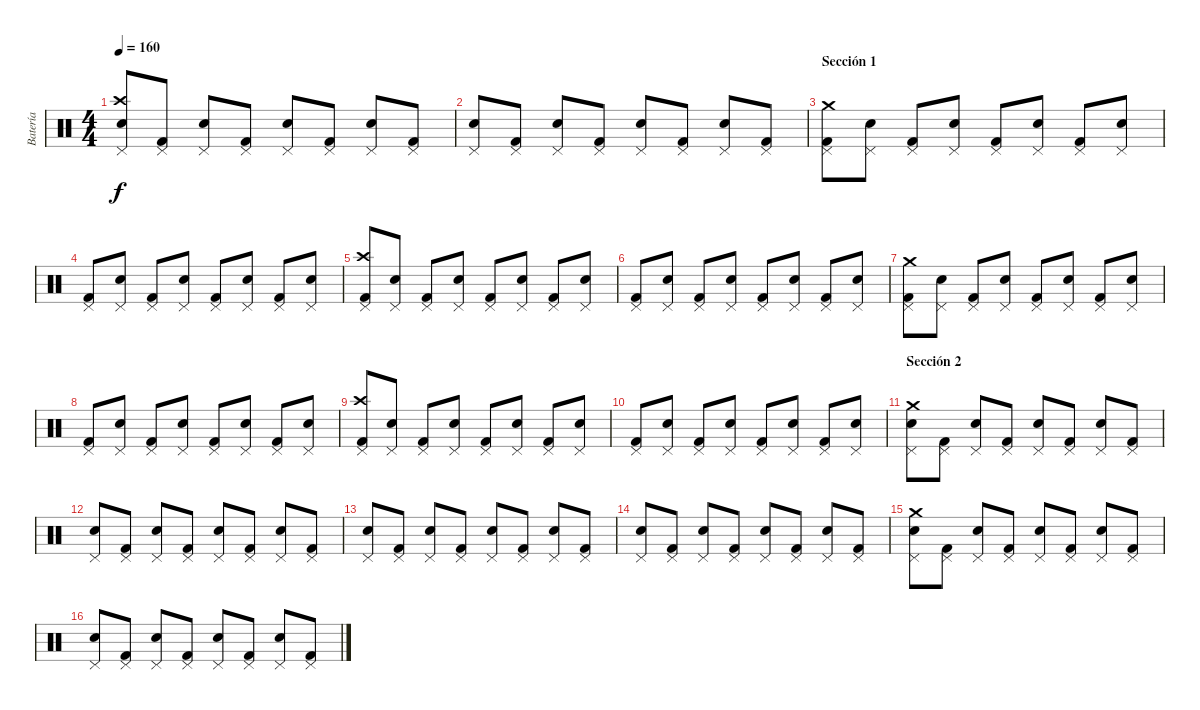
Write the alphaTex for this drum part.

\track ("Batería" "Batería") {instrument percussion}
\staff {score}
\articulation defaults
\ts (4 4)
\tempo 160
\clef neutral
\ks c
("Pedal Hi-Hat (hit)" "Crash high (hit)" "Electric Snare (hit)").8{dy f} ("Pedal Hi-Hat (hit)" "Kick (hit) 2").8 ("Pedal Hi-Hat (hit)" "Electric Snare (hit)").8 ("Pedal Hi-Hat (hit)" "Kick (hit) 2").8 ("Pedal Hi-Hat (hit)" "Electric Snare (hit)").8 ("Pedal Hi-Hat (hit)" "Kick (hit) 2").8 ("Pedal Hi-Hat (hit)" "Electric Snare (hit)").8 ("Pedal Hi-Hat (hit)" "Kick (hit) 2").8 |
("Pedal Hi-Hat (hit)" "Electric Snare (hit)").8 ("Pedal Hi-Hat (hit)" "Kick (hit) 2").8 ("Pedal Hi-Hat (hit)" "Electric Snare (hit)").8 ("Pedal Hi-Hat (hit)" "Kick (hit) 2").8 ("Pedal Hi-Hat (hit)" "Electric Snare (hit)").8 ("Pedal Hi-Hat (hit)" "Kick (hit) 2").8 ("Pedal Hi-Hat (hit)" "Electric Snare (hit)").8 ("Pedal Hi-Hat (hit)" "Kick (hit) 2").8 |
\section ("" "Sección 1")
("Pedal Hi-Hat (hit)" "Crash medium (hit)" "Kick (hit) 2").8 ("Pedal Hi-Hat (hit)" "Electric Snare (hit)").8 ("Pedal Hi-Hat (hit)" "Kick (hit) 2").8 ("Pedal Hi-Hat (hit)" "Electric Snare (hit)").8 ("Pedal Hi-Hat (hit)" "Kick (hit) 2").8 ("Pedal Hi-Hat (hit)" "Electric Snare (hit)").8 ("Pedal Hi-Hat (hit)" "Kick (hit) 2").8 ("Pedal Hi-Hat (hit)" "Electric Snare (hit)").8 |
("Pedal Hi-Hat (hit)" "Kick (hit) 2").8 ("Pedal Hi-Hat (hit)" "Electric Snare (hit)").8 ("Pedal Hi-Hat (hit)" "Kick (hit) 2").8 ("Pedal Hi-Hat (hit)" "Electric Snare (hit)").8 ("Pedal Hi-Hat (hit)" "Kick (hit) 2").8 ("Pedal Hi-Hat (hit)" "Electric Snare (hit)").8 ("Pedal Hi-Hat (hit)" "Kick (hit) 2").8 ("Pedal Hi-Hat (hit)" "Electric Snare (hit)").8 |
("Pedal Hi-Hat (hit)" "Crash high (hit)" "Kick (hit) 2").8 ("Pedal Hi-Hat (hit)" "Electric Snare (hit)").8 ("Pedal Hi-Hat (hit)" "Kick (hit) 2").8 ("Pedal Hi-Hat (hit)" "Electric Snare (hit)").8 ("Pedal Hi-Hat (hit)" "Kick (hit) 2").8 ("Pedal Hi-Hat (hit)" "Electric Snare (hit)").8 ("Pedal Hi-Hat (hit)" "Kick (hit) 2").8 ("Pedal Hi-Hat (hit)" "Electric Snare (hit)").8 |
("Pedal Hi-Hat (hit)" "Kick (hit) 2").8 ("Pedal Hi-Hat (hit)" "Electric Snare (hit)").8 ("Pedal Hi-Hat (hit)" "Kick (hit) 2").8 ("Pedal Hi-Hat (hit)" "Electric Snare (hit)").8 ("Pedal Hi-Hat (hit)" "Kick (hit) 2").8 ("Pedal Hi-Hat (hit)" "Electric Snare (hit)").8 ("Pedal Hi-Hat (hit)" "Kick (hit) 2").8 ("Pedal Hi-Hat (hit)" "Electric Snare (hit)").8 |
("Pedal Hi-Hat (hit)" "Crash medium (hit)" "Kick (hit) 2").8 ("Pedal Hi-Hat (hit)" "Electric Snare (hit)").8 ("Pedal Hi-Hat (hit)" "Kick (hit) 2").8 ("Pedal Hi-Hat (hit)" "Electric Snare (hit)").8 ("Pedal Hi-Hat (hit)" "Kick (hit) 2").8 ("Pedal Hi-Hat (hit)" "Electric Snare (hit)").8 ("Pedal Hi-Hat (hit)" "Kick (hit) 2").8 ("Pedal Hi-Hat (hit)" "Electric Snare (hit)").8 |
("Pedal Hi-Hat (hit)" "Kick (hit) 2").8 ("Pedal Hi-Hat (hit)" "Electric Snare (hit)").8 ("Pedal Hi-Hat (hit)" "Kick (hit) 2").8 ("Pedal Hi-Hat (hit)" "Electric Snare (hit)").8 ("Pedal Hi-Hat (hit)" "Kick (hit) 2").8 ("Pedal Hi-Hat (hit)" "Electric Snare (hit)").8 ("Pedal Hi-Hat (hit)" "Kick (hit) 2").8 ("Pedal Hi-Hat (hit)" "Electric Snare (hit)").8 |
("Pedal Hi-Hat (hit)" "Crash high (hit)" "Kick (hit) 2").8 ("Pedal Hi-Hat (hit)" "Electric Snare (hit)").8 ("Pedal Hi-Hat (hit)" "Kick (hit) 2").8 ("Pedal Hi-Hat (hit)" "Electric Snare (hit)").8 ("Pedal Hi-Hat (hit)" "Kick (hit) 2").8 ("Pedal Hi-Hat (hit)" "Electric Snare (hit)").8 ("Pedal Hi-Hat (hit)" "Kick (hit) 2").8 ("Pedal Hi-Hat (hit)" "Electric Snare (hit)").8 |
("Pedal Hi-Hat (hit)" "Kick (hit) 2").8 ("Pedal Hi-Hat (hit)" "Electric Snare (hit)").8 ("Pedal Hi-Hat (hit)" "Kick (hit) 2").8 ("Pedal Hi-Hat (hit)" "Electric Snare (hit)").8 ("Pedal Hi-Hat (hit)" "Kick (hit) 2").8 ("Pedal Hi-Hat (hit)" "Electric Snare (hit)").8 ("Pedal Hi-Hat (hit)" "Kick (hit) 2").8 ("Pedal Hi-Hat (hit)" "Electric Snare (hit)").8 |
\section ("" "Sección 2")
("Pedal Hi-Hat (hit)" "Crash medium (hit)" "Electric Snare (hit)").8 ("Pedal Hi-Hat (hit)" "Kick (hit) 2").8 ("Pedal Hi-Hat (hit)" "Electric Snare (hit)").8 ("Pedal Hi-Hat (hit)" "Kick (hit) 2").8 ("Pedal Hi-Hat (hit)" "Electric Snare (hit)").8 ("Pedal Hi-Hat (hit)" "Kick (hit) 2").8 ("Pedal Hi-Hat (hit)" "Electric Snare (hit)").8 ("Pedal Hi-Hat (hit)" "Kick (hit) 2").8 |
("Pedal Hi-Hat (hit)" "Electric Snare (hit)").8 ("Pedal Hi-Hat (hit)" "Kick (hit) 2").8 ("Pedal Hi-Hat (hit)" "Electric Snare (hit)").8 ("Pedal Hi-Hat (hit)" "Kick (hit) 2").8 ("Pedal Hi-Hat (hit)" "Electric Snare (hit)").8 ("Pedal Hi-Hat (hit)" "Kick (hit) 2").8 ("Pedal Hi-Hat (hit)" "Electric Snare (hit)").8 ("Pedal Hi-Hat (hit)" "Kick (hit) 2").8 |
("Pedal Hi-Hat (hit)" "Electric Snare (hit)").8 ("Pedal Hi-Hat (hit)" "Kick (hit) 2").8 ("Pedal Hi-Hat (hit)" "Electric Snare (hit)").8 ("Pedal Hi-Hat (hit)" "Kick (hit) 2").8 ("Pedal Hi-Hat (hit)" "Electric Snare (hit)").8 ("Pedal Hi-Hat (hit)" "Kick (hit) 2").8 ("Pedal Hi-Hat (hit)" "Electric Snare (hit)").8 ("Pedal Hi-Hat (hit)" "Kick (hit) 2").8 |
("Pedal Hi-Hat (hit)" "Electric Snare (hit)").8 ("Pedal Hi-Hat (hit)" "Kick (hit) 2").8 ("Pedal Hi-Hat (hit)" "Electric Snare (hit)").8 ("Pedal Hi-Hat (hit)" "Kick (hit) 2").8 ("Pedal Hi-Hat (hit)" "Electric Snare (hit)").8 ("Pedal Hi-Hat (hit)" "Kick (hit) 2").8 ("Pedal Hi-Hat (hit)" "Electric Snare (hit)").8 ("Pedal Hi-Hat (hit)" "Kick (hit) 2").8 |
("Pedal Hi-Hat (hit)" "Crash medium (hit)" "Electric Snare (hit)").8 ("Pedal Hi-Hat (hit)" "Kick (hit) 2").8 ("Pedal Hi-Hat (hit)" "Electric Snare (hit)").8 ("Pedal Hi-Hat (hit)" "Kick (hit) 2").8 ("Pedal Hi-Hat (hit)" "Electric Snare (hit)").8 ("Pedal Hi-Hat (hit)" "Kick (hit) 2").8 ("Pedal Hi-Hat (hit)" "Electric Snare (hit)").8 ("Pedal Hi-Hat (hit)" "Kick (hit) 2").8 |
("Pedal Hi-Hat (hit)" "Electric Snare (hit)").8 ("Pedal Hi-Hat (hit)" "Kick (hit) 2").8 ("Pedal Hi-Hat (hit)" "Electric Snare (hit)").8 ("Pedal Hi-Hat (hit)" "Kick (hit) 2").8 ("Pedal Hi-Hat (hit)" "Electric Snare (hit)").8 ("Pedal Hi-Hat (hit)" "Kick (hit) 2").8 ("Pedal Hi-Hat (hit)" "Electric Snare (hit)").8 ("Pedal Hi-Hat (hit)" "Kick (hit) 2").8
